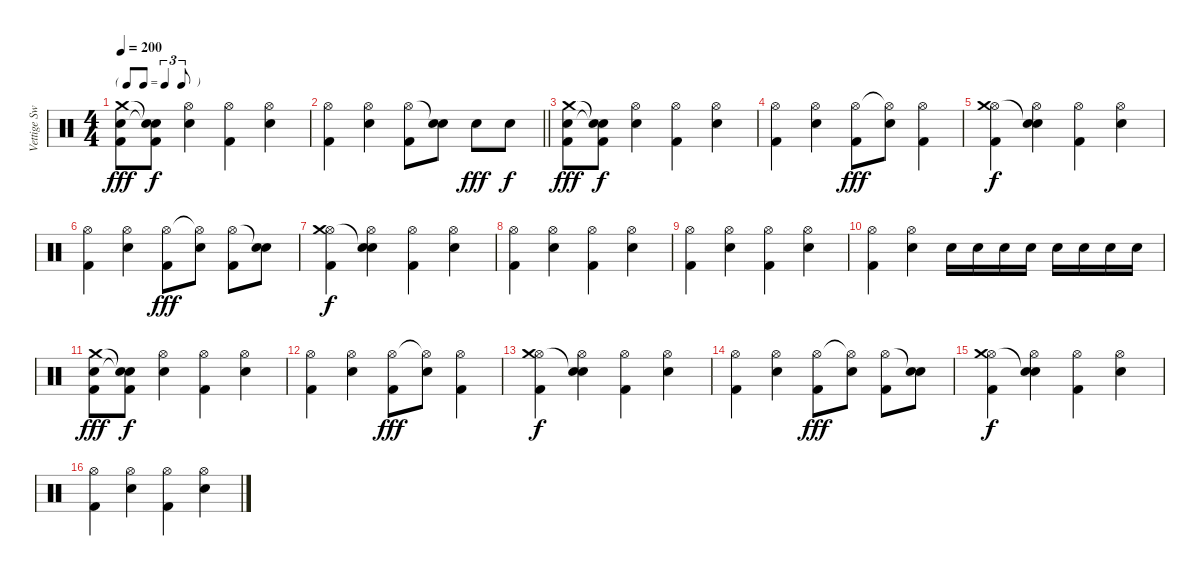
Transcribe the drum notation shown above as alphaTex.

\track ("Vettige Swa" "Vettige Sw") {instrument percussion}
\staff {score}
\articulation defaults
\ts (4 4)
\tf triplet8th
\tempo 200
\clef neutral
\ks c
("Electric Snare (hit)" "Kick (hit) 2" "Crash medium (hit)").8{dy fff} ("Snare (hit)"{t} "Kick (hit) 2" "Snare (hit)"{t}).8{dy f} ("Hi-Hat (open)" "Electric Snare (hit)").4 ("Hi-Hat (open)" "Kick (hit) 2").4 ("Hi-Hat (open)" "Electric Snare (hit)").4 |
\barLineRight lightlight
("Hi-Hat (open)" "Kick (hit) 2").4 ("Hi-Hat (open)" "Electric Snare (hit)").4 ("Hi-Hat (open)" "Kick (hit) 2").8 ("Snare (hit)"{t} "Electric Snare (hit)").8 "Electric Snare (hit)".8{dy fff} "Electric Snare (hit)".8{dy f} |
("Electric Snare (hit)" "Kick (hit) 2" "Crash medium (hit)").8{dy fff} ("Snare (hit)"{t} "Kick (hit) 2" "Snare (hit)"{t}).8{dy f} ("Hi-Hat (open)" "Electric Snare (hit)").4 ("Hi-Hat (open)" "Kick (hit) 2").4 ("Hi-Hat (open)" "Electric Snare (hit)").4 |
("Hi-Hat (open)" "Kick (hit) 2").4 ("Hi-Hat (open)" "Electric Snare (hit)").4 ("Hi-Hat (open)" "Kick (hit) 2").8{dy fff} ("Hi-Hat (open)"{t} "Electric Snare (hit)").8 ("Hi-Hat (open)" "Kick (hit) 2").4 |
("Hi-Hat (open)" "Kick (hit) 2" "Crash medium (hit)").4{dy f} ("Hi-Hat (open)" "Electric Snare (hit)" "Snare (hit)"{t}).4 ("Hi-Hat (open)" "Kick (hit) 2").4 ("Hi-Hat (open)" "Electric Snare (hit)").4 |
("Hi-Hat (open)" "Kick (hit) 2").4 ("Hi-Hat (open)" "Electric Snare (hit)").4 ("Hi-Hat (open)" "Kick (hit) 2").8{dy fff} ("Hi-Hat (open)"{t} "Electric Snare (hit)").8 ("Hi-Hat (open)" "Kick (hit) 2").8 ("Snare (hit)"{t} "Electric Snare (hit)").8 |
("Hi-Hat (open)" "Kick (hit) 2" "Crash medium (hit)").4{dy f} ("Hi-Hat (open)" "Electric Snare (hit)" "Snare (hit)"{t}).4 ("Hi-Hat (open)" "Kick (hit) 2").4 ("Hi-Hat (open)" "Electric Snare (hit)").4 |
("Hi-Hat (open)" "Kick (hit) 2").4 ("Hi-Hat (open)" "Electric Snare (hit)").4 ("Hi-Hat (open)" "Kick (hit) 2").4 ("Hi-Hat (open)" "Electric Snare (hit)").4 |
("Hi-Hat (open)" "Kick (hit) 2").4 ("Hi-Hat (open)" "Electric Snare (hit)").4 ("Hi-Hat (open)" "Kick (hit) 2").4 ("Hi-Hat (open)" "Electric Snare (hit)").4 |
("Hi-Hat (open)" "Kick (hit) 2").4 ("Hi-Hat (open)" "Electric Snare (hit)").4 "Electric Snare (hit)".16 "Electric Snare (hit)".16 "Electric Snare (hit)".16 "Electric Snare (hit)".16 "Electric Snare (hit)".16 "Electric Snare (hit)".16 "Electric Snare (hit)".16 "Electric Snare (hit)".16 |
("Electric Snare (hit)" "Kick (hit) 2" "Crash medium (hit)").8{dy fff} ("Snare (hit)"{t} "Kick (hit) 2" "Snare (hit)"{t}).8{dy f} ("Hi-Hat (open)" "Electric Snare (hit)").4 ("Hi-Hat (open)" "Kick (hit) 2").4 ("Hi-Hat (open)" "Electric Snare (hit)").4 |
("Hi-Hat (open)" "Kick (hit) 2").4 ("Hi-Hat (open)" "Electric Snare (hit)").4 ("Hi-Hat (open)" "Kick (hit) 2").8{dy fff} ("Hi-Hat (open)"{t} "Electric Snare (hit)").8 ("Hi-Hat (open)" "Kick (hit) 2").4 |
("Hi-Hat (open)" "Kick (hit) 2" "Crash medium (hit)").4{dy f} ("Hi-Hat (open)" "Electric Snare (hit)" "Snare (hit)"{t}).4 ("Hi-Hat (open)" "Kick (hit) 2").4 ("Hi-Hat (open)" "Electric Snare (hit)").4 |
("Hi-Hat (open)" "Kick (hit) 2").4 ("Hi-Hat (open)" "Electric Snare (hit)").4 ("Hi-Hat (open)" "Kick (hit) 2").8{dy fff} ("Hi-Hat (open)"{t} "Electric Snare (hit)").8 ("Hi-Hat (open)" "Kick (hit) 2").8 ("Snare (hit)"{t} "Electric Snare (hit)").8 |
("Hi-Hat (open)" "Kick (hit) 2" "Crash medium (hit)").4{dy f} ("Hi-Hat (open)" "Electric Snare (hit)" "Snare (hit)"{t}).4 ("Hi-Hat (open)" "Kick (hit) 2").4 ("Hi-Hat (open)" "Electric Snare (hit)").4 |
("Hi-Hat (open)" "Kick (hit) 2").4 ("Hi-Hat (open)" "Electric Snare (hit)").4 ("Hi-Hat (open)" "Kick (hit) 2").4 ("Hi-Hat (open)" "Electric Snare (hit)").4
